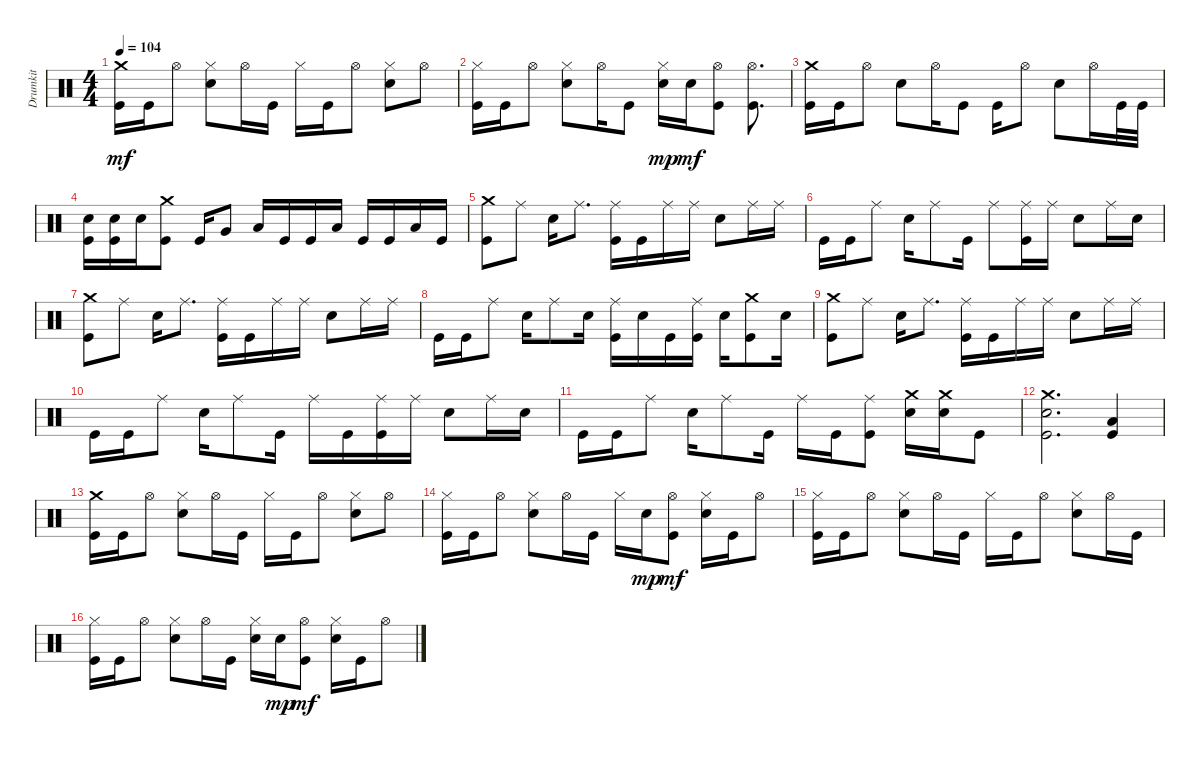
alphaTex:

\track ("Drumkit" "Drumkit") {instrument percussion}
\staff {score}
\articulation defaults
\ts (4 4)
\tempo 104
\clef neutral
\ks c
("Crash medium (hit)" "Kick (hit)").16{dy mf} "Kick (hit)".16 "Hi-Hat (open)".8 ("Snare (hit) 2" "Hi-Hat (closed)").8 "Hi-Hat (open)".16 "Kick (hit)".16 "Hi-Hat (closed)".16 "Kick (hit)".16 "Hi-Hat (open)".8 ("Snare (hit) 2" "Hi-Hat (closed)").8 "Hi-Hat (open)".8 |
("Kick (hit)" "Hi-Hat (closed)").16 "Kick (hit)".16 "Hi-Hat (open)".8 ("Snare (hit) 2" "Hi-Hat (closed)").8 "Hi-Hat (open)".16 "Kick (hit)".8 ("Snare (hit) 2" "Hi-Hat (closed)").16{dy mp} "Snare (hit) 2".16{dy mf} ("Hi-Hat (open)" "Kick (hit)").8 ("Hi-Hat (open)" "Kick (hit)").8{d} |
("Crash medium (hit)" "Kick (hit)").16 "Kick (hit)".16 "Hi-Hat (open)".8 "Snare (hit) 2".8 "Hi-Hat (open)".16 "Kick (hit)".8 "Kick (hit)".16 "Hi-Hat (open)".8 "Snare (hit) 2".8 "Hi-Hat (open)".16 "Kick (hit)".32 "Kick (hit)".32 |
("Snare (hit) 2" "Kick (hit)").16 ("Snare (hit) 2" "Kick (hit)").16 "Snare (hit) 2".16 ("Crash medium (hit)" "Kick (hit)").8 "Kick (hit)".16 "Very Low Tom (hit)".8 "Low Tom (hit)".16 "Kick (hit)".16 "Kick (hit)".16 "Low Floor Tom (hit)".16 "Kick (hit)".16 "Kick (hit)".16 "Low Floor Tom (hit)".16 "Kick (hit)".16 |
("Crash medium (hit)" "Kick (hit)").8 "Ride (middle)".8 "Snare (hit) 2".16 "Ride (middle)".8{d} ("Kick (hit)" "Ride (middle)").16 "Kick (hit)".16 "Ride (middle)".16 "Ride (middle)".16 "Snare (hit) 2".8 "Ride (middle)".16 "Ride (middle)".16 |
"Kick (hit)".16 "Kick (hit)".16 "Ride (middle)".8 "Snare (hit) 2".16 "Ride (middle)".8 "Kick (hit)".16 "Ride (middle)".8 ("Kick (hit)" "Ride (middle)").16 "Ride (middle)".16 "Snare (hit) 2".8 "Ride (middle)".16 "Snare (hit) 2".16 |
("Crash medium (hit)" "Kick (hit)").8 "Ride (middle)".8 "Snare (hit) 2".16 "Ride (middle)".8{d} ("Kick (hit)" "Ride (middle)").16 "Kick (hit)".16 "Ride (middle)".16 "Ride (middle)".16 "Snare (hit) 2".8 "Ride (middle)".16 "Ride (middle)".16 |
"Kick (hit)".16 "Kick (hit)".16 "Ride (middle)".8 "Snare (hit) 2".16 "Ride (middle)".8 "Snare (hit) 2".16 ("Kick (hit)" "Ride (middle)").16 "Snare (hit) 2".16 "Kick (hit)".16 ("Kick (hit)" "Ride (middle)").16 "Snare (hit) 2".16 ("Crash medium (hit)" "Kick (hit)").8 "Snare (hit) 2".16 |
("Crash medium (hit)" "Kick (hit)").8 "Ride (middle)".8 "Snare (hit) 2".16 "Ride (middle)".8{d} ("Kick (hit)" "Ride (middle)").16 "Kick (hit)".16 "Ride (middle)".16 "Ride (middle)".16 "Snare (hit) 2".8 "Ride (middle)".16 "Ride (middle)".16 |
"Kick (hit)".16 "Kick (hit)".16 "Ride (middle)".8 "Snare (hit) 2".16 "Ride (middle)".8 "Kick (hit)".16 "Ride (middle)".16 "Kick (hit)".16 ("Kick (hit)" "Ride (middle)").16 "Ride (middle)".16 "Snare (hit) 2".8 "Ride (middle)".16 "Snare (hit) 2".16 |
"Kick (hit)".16 "Kick (hit)".16 "Ride (middle)".8 "Snare (hit) 2".16 "Ride (middle)".8 "Kick (hit)".16 "Ride (middle)".16 "Kick (hit)".16 ("Kick (hit)" "Ride (middle)").8 ("Crash medium (hit)" "Snare (hit) 2").16 ("Crash medium (hit)" "Snare (hit) 2").16 "Kick (hit)".8 |
("Crash medium (hit)" "Snare (hit) 2" "Kick (hit)").2{d} ("Kick (hit)" "Low Floor Tom (hit)").4 |
("Crash medium (hit)" "Kick (hit)").16 "Kick (hit)".16 "Hi-Hat (open)".8 ("Snare (hit) 2" "Hi-Hat (closed)").8 "Hi-Hat (open)".16 "Kick (hit)".16 "Hi-Hat (closed)".16 "Kick (hit)".16 "Hi-Hat (open)".8 ("Snare (hit) 2" "Hi-Hat (closed)").8 "Hi-Hat (open)".8 |
("Kick (hit)" "Hi-Hat (closed)").16 "Kick (hit)".16 "Hi-Hat (open)".8 ("Snare (hit) 2" "Hi-Hat (closed)").8 "Hi-Hat (open)".16 "Kick (hit)".16 "Hi-Hat (closed)".16 "Snare (hit) 2".16{dy mp} ("Hi-Hat (open)" "Kick (hit)").8{dy mf} ("Snare (hit) 2" "Hi-Hat (closed)").16 "Kick (hit)".16 "Hi-Hat (open)".8 |
("Kick (hit)" "Hi-Hat (closed)").16 "Kick (hit)".16 "Hi-Hat (open)".8 ("Snare (hit) 2" "Hi-Hat (closed)").8 "Hi-Hat (open)".16 "Kick (hit)".16 "Hi-Hat (closed)".16 "Kick (hit)".16 "Hi-Hat (open)".8 ("Snare (hit) 2" "Hi-Hat (closed)").8 "Hi-Hat (open)".16 "Kick (hit)".16 |
("Kick (hit)" "Hi-Hat (closed)").16 "Kick (hit)".16 "Hi-Hat (open)".8 ("Snare (hit) 2" "Hi-Hat (closed)").8 "Hi-Hat (open)".16 "Kick (hit)".16 ("Hi-Hat (closed)" "Snare (hit) 2").16 "Snare (hit) 2".16{dy mp} ("Hi-Hat (open)" "Kick (hit)").8{dy mf} ("Snare (hit) 2" "Hi-Hat (closed)").16 "Kick (hit)".16 "Hi-Hat (open)".8
